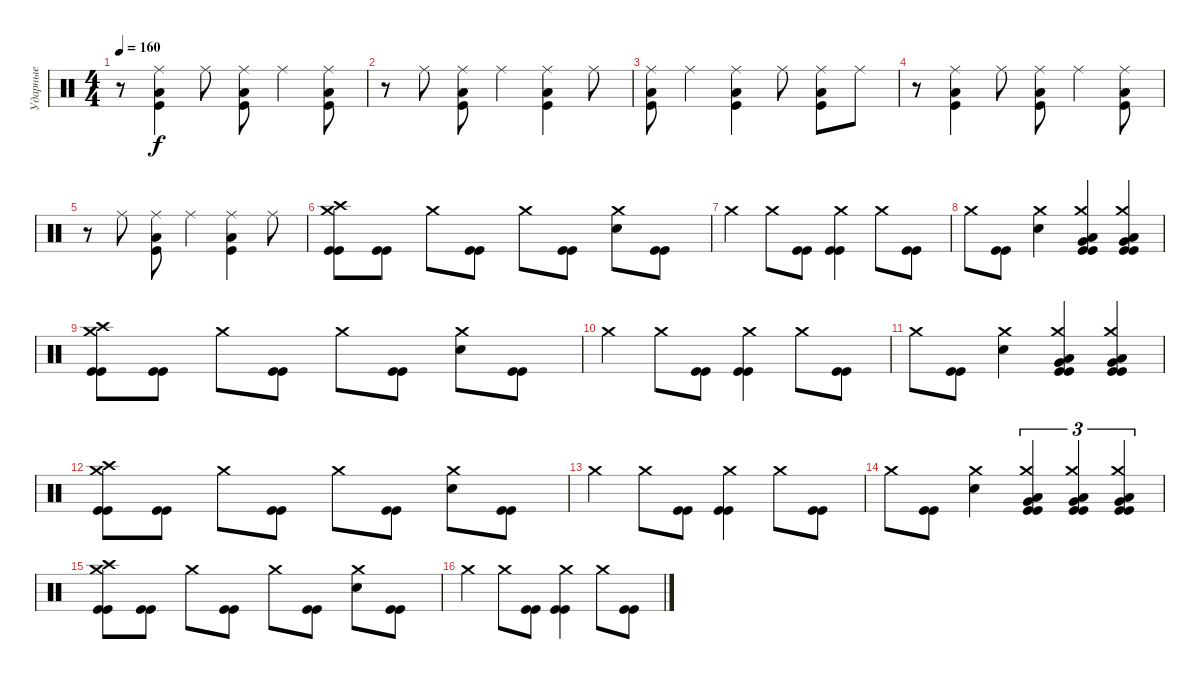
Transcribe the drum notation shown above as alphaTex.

\track ("Ударные" "Ударные") {instrument percussion}
\staff {score}
\articulation defaults
\ts (4 4)
\tempo 160
\clef neutral
\ks c
r.8{dy f} ("Ride (middle)" "Low Floor Tom (hit)" "Kick (hit)").4 "Ride (middle)".8 ("Ride (middle)" "Low Floor Tom (hit)" "Kick (hit)").8 "Ride (middle)".4 ("Ride (middle)" "Low Floor Tom (hit)" "Kick (hit)").8 |
r.8 "Ride (middle)".8 ("Ride (middle)" "Low Floor Tom (hit)" "Kick (hit)").8 "Ride (middle)".4 ("Ride (middle)" "Low Floor Tom (hit)" "Kick (hit)").4 "Ride (middle)".8 |
("Ride (middle)" "Low Floor Tom (hit)" "Kick (hit)").8 "Ride (middle)".4 ("Ride (middle)" "Low Floor Tom (hit)" "Kick (hit)").4 "Ride (middle)".8 ("Ride (middle)" "Low Floor Tom (hit)" "Kick (hit)").8 "Ride (middle)".8 |
r.8 ("Ride (middle)" "Low Floor Tom (hit)" "Kick (hit)").4 "Ride (middle)".8 ("Ride (middle)" "Low Floor Tom (hit)" "Kick (hit)").8 "Ride (middle)".4 ("Ride (middle)" "Low Floor Tom (hit)" "Kick (hit)").8 |
r.8 "Ride (middle)".8 ("Ride (middle)" "Low Floor Tom (hit)" "Kick (hit)").8 "Ride (middle)".4 ("Ride (middle)" "Low Floor Tom (hit)" "Kick (hit)").4 "Ride (middle)".8 |
("Crash high (hit)" "Crash medium (hit)" "Kick (hit)" "Kick (hit)").8 ("Kick (hit)" "Kick (hit)").8 "Crash medium (hit)".8 ("Kick (hit)" "Kick (hit)").8 "Crash medium (hit)".8 ("Kick (hit)" "Kick (hit)").8 ("Crash medium (hit)" "Snare (hit) 2").8 ("Kick (hit)" "Kick (hit)").8 |
"Crash medium (hit)".4 "Crash medium (hit)".8 ("Kick (hit)" "Kick (hit)").8 ("Crash medium (hit)" "Kick (hit)" "Kick (hit)").4 "Crash medium (hit)".8 ("Kick (hit)" "Kick (hit)").8 |
"Crash medium (hit)".8 ("Kick (hit)" "Kick (hit)").8 ("Crash medium (hit)" "Snare (hit) 2").4 ("Crash medium (hit)" "Very Low Tom (hit)" "Low Tom (hit)" "Kick (hit)" "Kick (hit)").4 ("Crash medium (hit)" "Very Low Tom (hit)" "Low Tom (hit)" "Kick (hit)" "Kick (hit)").4 |
("Crash high (hit)" "Crash medium (hit)" "Kick (hit)" "Kick (hit)").8 ("Kick (hit)" "Kick (hit)").8 "Crash medium (hit)".8 ("Kick (hit)" "Kick (hit)").8 "Crash medium (hit)".8 ("Kick (hit)" "Kick (hit)").8 ("Crash medium (hit)" "Snare (hit) 2").8 ("Kick (hit)" "Kick (hit)").8 |
"Crash medium (hit)".4 "Crash medium (hit)".8 ("Kick (hit)" "Kick (hit)").8 ("Crash medium (hit)" "Kick (hit)" "Kick (hit)").4 "Crash medium (hit)".8 ("Kick (hit)" "Kick (hit)").8 |
"Crash medium (hit)".8 ("Kick (hit)" "Kick (hit)").8 ("Crash medium (hit)" "Snare (hit) 2").4 ("Crash medium (hit)" "Very Low Tom (hit)" "Low Tom (hit)" "Kick (hit)" "Kick (hit)").4 ("Crash medium (hit)" "Very Low Tom (hit)" "Low Tom (hit)" "Kick (hit)" "Kick (hit)").4 |
("Crash high (hit)" "Crash medium (hit)" "Kick (hit)" "Kick (hit)").8 ("Kick (hit)" "Kick (hit)").8 "Crash medium (hit)".8 ("Kick (hit)" "Kick (hit)").8 "Crash medium (hit)".8 ("Kick (hit)" "Kick (hit)").8 ("Crash medium (hit)" "Snare (hit) 2").8 ("Kick (hit)" "Kick (hit)").8 |
"Crash medium (hit)".4 "Crash medium (hit)".8 ("Kick (hit)" "Kick (hit)").8 ("Crash medium (hit)" "Kick (hit)" "Kick (hit)").4 "Crash medium (hit)".8 ("Kick (hit)" "Kick (hit)").8 |
"Crash medium (hit)".8 ("Kick (hit)" "Kick (hit)").8 ("Crash medium (hit)" "Snare (hit) 2").4 ("Crash medium (hit)" "Very Low Tom (hit)" "Low Tom (hit)" "Kick (hit)" "Kick (hit)").4{tu (3 2)} ("Crash medium (hit)" "Very Low Tom (hit)" "Low Tom (hit)" "Kick (hit)" "Kick (hit)").4{tu (3 2)} ("Crash medium (hit)" "Very Low Tom (hit)" "Low Tom (hit)" "Kick (hit)" "Kick (hit)").4{tu (3 2)} |
("Crash high (hit)" "Crash medium (hit)" "Kick (hit)" "Kick (hit)").8 ("Kick (hit)" "Kick (hit)").8 "Crash medium (hit)".8 ("Kick (hit)" "Kick (hit)").8 "Crash medium (hit)".8 ("Kick (hit)" "Kick (hit)").8 ("Crash medium (hit)" "Snare (hit) 2").8 ("Kick (hit)" "Kick (hit)").8 |
"Crash medium (hit)".4 "Crash medium (hit)".8 ("Kick (hit)" "Kick (hit)").8 ("Crash medium (hit)" "Kick (hit)" "Kick (hit)").4 "Crash medium (hit)".8 ("Kick (hit)" "Kick (hit)").8
